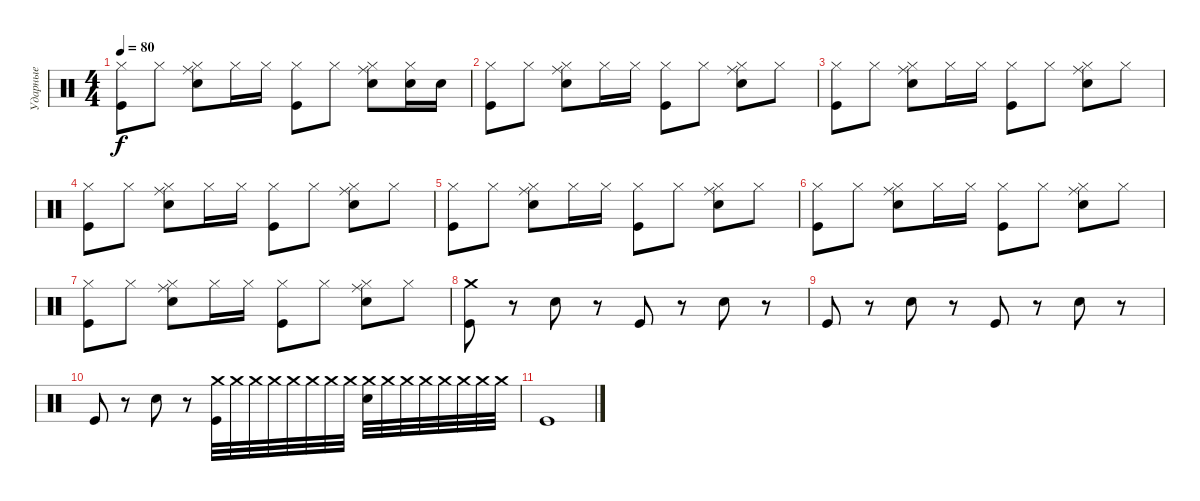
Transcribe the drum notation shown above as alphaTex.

\track ("Ударные" "Ударные") {instrument percussion}
\staff {score}
\articulation defaults
\ts (4 4)
\tempo 80
\clef neutral
\ks c
("Kick (hit)" "Hi-Hat (closed)").8{dy f} "Hi-Hat (closed)".8 ("Snare (hit) 2" "Hi-Hat (closed)" "Ride (middle)").8 "Hi-Hat (closed)".16 "Hi-Hat (closed)".16 ("Kick (hit)" "Hi-Hat (closed)").8 "Hi-Hat (closed)".8 ("Snare (hit) 2" "Hi-Hat (closed)" "Ride (middle)").8 ("Snare (hit) 2" "Hi-Hat (closed)").16 "Snare (hit) 2".16 |
("Kick (hit)" "Hi-Hat (closed)").8 "Hi-Hat (closed)".8 ("Snare (hit) 2" "Hi-Hat (closed)" "Ride (middle)").8 "Hi-Hat (closed)".16 "Hi-Hat (closed)".16 ("Kick (hit)" "Hi-Hat (closed)").8 "Hi-Hat (closed)".8 ("Snare (hit) 2" "Hi-Hat (closed)" "Ride (middle)").8 "Hi-Hat (closed)".8 |
("Kick (hit)" "Hi-Hat (closed)").8 "Hi-Hat (closed)".8 ("Snare (hit) 2" "Hi-Hat (closed)" "Ride (middle)").8 "Hi-Hat (closed)".16 "Hi-Hat (closed)".16 ("Kick (hit)" "Hi-Hat (closed)").8 "Hi-Hat (closed)".8 ("Snare (hit) 2" "Hi-Hat (closed)" "Ride (middle)").8 "Hi-Hat (closed)".8 |
("Kick (hit)" "Hi-Hat (closed)").8 "Hi-Hat (closed)".8 ("Snare (hit) 2" "Hi-Hat (closed)" "Ride (middle)").8 "Hi-Hat (closed)".16 "Hi-Hat (closed)".16 ("Kick (hit)" "Hi-Hat (closed)").8 "Hi-Hat (closed)".8 ("Snare (hit) 2" "Hi-Hat (closed)" "Ride (middle)").8 "Hi-Hat (closed)".8 |
("Kick (hit)" "Hi-Hat (closed)").8 "Hi-Hat (closed)".8 ("Snare (hit) 2" "Hi-Hat (closed)" "Ride (middle)").8 "Hi-Hat (closed)".16 "Hi-Hat (closed)".16 ("Kick (hit)" "Hi-Hat (closed)").8 "Hi-Hat (closed)".8 ("Snare (hit) 2" "Hi-Hat (closed)" "Ride (middle)").8 "Hi-Hat (closed)".8 |
("Kick (hit)" "Hi-Hat (closed)").8 "Hi-Hat (closed)".8 ("Snare (hit) 2" "Hi-Hat (closed)" "Ride (middle)").8 "Hi-Hat (closed)".16 "Hi-Hat (closed)".16 ("Kick (hit)" "Hi-Hat (closed)").8 "Hi-Hat (closed)".8 ("Snare (hit) 2" "Hi-Hat (closed)" "Ride (middle)").8 "Hi-Hat (closed)".8 |
("Kick (hit)" "Hi-Hat (closed)").8 "Hi-Hat (closed)".8 ("Snare (hit) 2" "Hi-Hat (closed)" "Ride (middle)").8 "Hi-Hat (closed)".16 "Hi-Hat (closed)".16 ("Kick (hit)" "Hi-Hat (closed)").8 "Hi-Hat (closed)".8 ("Snare (hit) 2" "Hi-Hat (closed)" "Ride (middle)").8 "Hi-Hat (closed)".8 |
("Kick (hit)" "Crash medium (hit)").8 r.8 "Snare (hit) 2".8{volume 5} r.8 "Kick (hit)".8 r.8 "Snare (hit) 2".8 r.8 |
"Kick (hit)".8 r.8 "Snare (hit) 2".8 r.8 "Kick (hit)".8 r.8 "Snare (hit) 2".8 r.8 |
"Kick (hit)".8 r.8 "Snare (hit) 2".8 r.8 ("Kick (hit)" "Crash medium (hit)").32{volume 13} "Crash medium (hit)".32 "Crash medium (hit)".32 "Crash medium (hit)".32 "Crash medium (hit)".32 "Crash medium (hit)".32 "Crash medium (hit)".32 "Crash medium (hit)".32 ("Snare (hit) 2" "Crash medium (hit)").32 "Crash medium (hit)".32 "Crash medium (hit)".32 "Crash medium (hit)".32 "Crash medium (hit)".32 "Crash medium (hit)".32 "Crash medium (hit)".32 "Crash medium (hit)".32 |
"Kick (hit)".1{volume 5}
